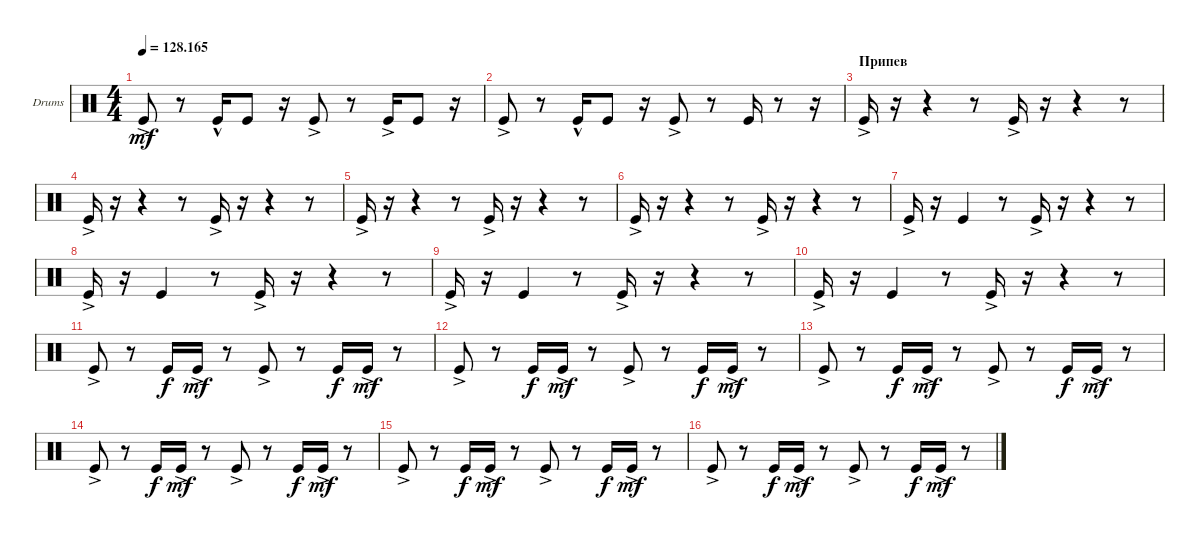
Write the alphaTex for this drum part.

\defaultSystemsLayout 4
\bracketExtendMode groupsimilarinstruments
\firstSystemTrackNameOrientation horizontal
\otherSystemsTrackNameOrientation horizontal
\track ("Drumkit" "Drums") {instrument percussion}
\staff {score}
\articulation defaults
\ts (4 4)
\tempo
128.165
\accidentals auto
\clef neutral
\ottava regular
\simile none
\ks c "Kick (hit)"{ac}.8{dy mf}
r.8 "Kick (hit)"{hac}.16 "Kick (hit)".8 r.16 "Kick (hit)"{ac}.8 r.8 "Kick (hit)"{ac}.16 "Kick (hit)".8 r.16 |
"Kick (hit)"{ac}.8 r.8 "Kick (hit)"{hac}.16 "Kick (hit)".8 r.16 "Kick (hit)"{ac}.8 r.8 "Kick (hit)".16 r.8 r.16 |
\section ("" "Припев")
"Kick (hit)"{ac}.16 r.16 r.4 r.8 "Kick (hit)"{ac}.16 r.16 r.4 r.8 |
"Kick (hit)"{ac}.16 r.16 r.4 r.8 "Kick (hit)"{ac}.16 r.16 r.4 r.8 |
"Kick (hit)"{ac}.16 r.16 r.4 r.8 "Kick (hit)"{ac}.16 r.16 r.4 r.8 |
"Kick (hit)"{ac}.16 r.16 r.4 r.8 "Kick (hit)"{ac}.16 r.16 r.4 r.8 |
"Kick (hit)"{ac}.16 r.16 "Kick (hit)".4 r.8 "Kick (hit)"{ac}.16 r.16 r.4 r.8 |
"Kick (hit)"{ac}.16 r.16 "Kick (hit)".4 r.8 "Kick (hit)"{ac}.16 r.16 r.4 r.8 |
"Kick (hit)"{ac}.16 r.16 "Kick (hit)".4 r.8 "Kick (hit)"{ac}.16 r.16 r.4 r.8 |
"Kick (hit)"{ac}.16 r.16 "Kick (hit)".4 r.8 "Kick (hit)"{ac}.16 r.16 r.4 r.8 |
"Kick (hit)"{ac}.8 r.8 "Kick (hit)".16{dy f} "Kick (hit)"{ac}.16{dy mf} r.8 "Kick (hit)"{ac}.8 r.8 "Kick (hit)".16{dy f} "Kick (hit)"{ac}.16{dy mf} r.8 |
"Kick (hit)"{ac}.8 r.8 "Kick (hit)".16{dy f} "Kick (hit)"{ac}.16{dy mf} r.8 "Kick (hit)"{ac}.8 r.8 "Kick (hit)".16{dy f} "Kick (hit)"{ac}.16{dy mf} r.8 |
"Kick (hit)"{ac}.8 r.8 "Kick (hit)".16{dy f} "Kick (hit)"{ac}.16{dy mf} r.8 "Kick (hit)"{ac}.8 r.8 "Kick (hit)".16{dy f} "Kick (hit)"{ac}.16{dy mf} r.8 |
"Kick (hit)"{ac}.8 r.8 "Kick (hit)".16{dy f} "Kick (hit)"{ac}.16{dy mf} r.8 "Kick (hit)"{ac}.8 r.8 "Kick (hit)".16{dy f} "Kick (hit)"{ac}.16{dy mf} r.8 |
"Kick (hit)"{ac}.8 r.8 "Kick (hit)".16{dy f} "Kick (hit)"{ac}.16{dy mf} r.8 "Kick (hit)"{ac}.8 r.8 "Kick (hit)".16{dy f} "Kick (hit)"{ac}.16{dy mf} r.8 |
"Kick (hit)"{ac}.8 r.8 "Kick (hit)".16{dy f} "Kick (hit)"{ac}.16{dy mf} r.8 "Kick (hit)"{ac}.8 r.8 "Kick (hit)".16{dy f} "Kick (hit)"{ac}.16{dy mf} r.8
